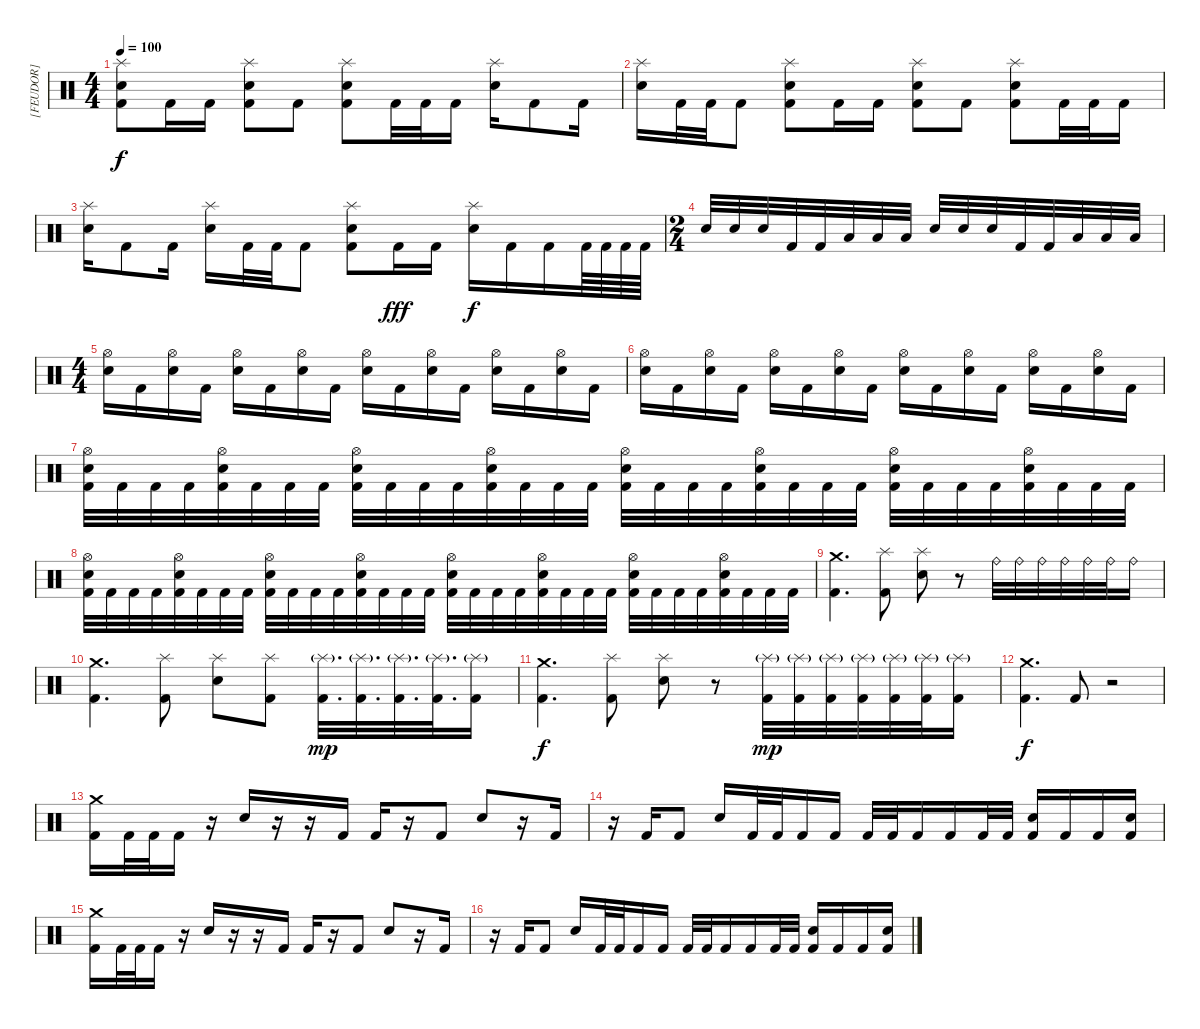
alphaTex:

\track ("[FEUDOR]" "[FEUDOR]") {instrument percussion}
\staff {score}
\articulation defaults
\ts (4 4)
\tempo 100
\clef neutral
\ks c
("Splash (hit)" "Electric Snare (hit)" "Kick (hit) 2").8{dy f} "Kick (hit) 2".16 "Kick (hit) 2".16 ("Splash (hit)" "Electric Snare (hit)" "Kick (hit) 2").8 "Kick (hit) 2".8 ("Splash (hit)" "Electric Snare (hit)" "Kick (hit) 2").8 "Kick (hit) 2".32 "Kick (hit) 2".32 "Kick (hit) 2".16 ("Splash (hit)" "Electric Snare (hit)").16 "Kick (hit) 2".8 "Kick (hit) 2".16 |
("Splash (hit)" "Electric Snare (hit)").16 "Kick (hit) 2".32 "Kick (hit) 2".32 "Kick (hit) 2".8 ("Splash (hit)" "Electric Snare (hit)" "Kick (hit) 2").8 "Kick (hit) 2".16 "Kick (hit) 2".16 ("Splash (hit)" "Electric Snare (hit)" "Kick (hit) 2").8 "Kick (hit) 2".8 ("Splash (hit)" "Electric Snare (hit)" "Kick (hit) 2").8 "Kick (hit) 2".32 "Kick (hit) 2".32 "Kick (hit) 2".16 |
("Splash (hit)" "Electric Snare (hit)").16 "Kick (hit) 2".8 "Kick (hit) 2".16 ("Splash (hit)" "Electric Snare (hit)").16 "Kick (hit) 2".32 "Kick (hit) 2".32 "Kick (hit) 2".8 ("Splash (hit)" "Electric Snare (hit)" "Kick (hit) 2").8 "Kick (hit) 2".16{dy fff} "Kick (hit) 2".16 ("Splash (hit)" "Electric Snare (hit)").16{dy f} "Kick (hit) 2".16 "Kick (hit) 2".16 "Kick (hit) 2".64 "Kick (hit) 2".64 "Kick (hit) 2".64 "Kick (hit) 2".64 |
\ts (2 4)
"Electric Snare (hit)".32 "Electric Snare (hit)".32 "Electric Snare (hit)".32 "Kick (hit) 2".32 "Kick (hit) 2".32 "Low Tom (hit)".32 "Low Tom (hit)".32 "Low Tom (hit)".32 "Electric Snare (hit)".32 "Electric Snare (hit)".32 "Electric Snare (hit)".32 "Kick (hit) 2".32 "Kick (hit) 2".32 "Low Tom (hit)".32 "Low Tom (hit)".32 "Low Tom (hit)".32 |
\ts (4 4)
("Hi-Hat (open)" "Electric Snare (hit)").16 "Kick (hit) 2".16 ("Hi-Hat (open)" "Electric Snare (hit)").16 "Kick (hit) 2".16 ("Hi-Hat (open)" "Electric Snare (hit)").16 "Kick (hit) 2".16 ("Hi-Hat (open)" "Electric Snare (hit)").16 "Kick (hit) 2".16 ("Hi-Hat (open)" "Electric Snare (hit)").16 "Kick (hit) 2".16 ("Hi-Hat (open)" "Electric Snare (hit)").16 "Kick (hit) 2".16 ("Hi-Hat (open)" "Electric Snare (hit)").16 "Kick (hit) 2".16 ("Hi-Hat (open)" "Electric Snare (hit)").16 "Kick (hit) 2".16 |
("Hi-Hat (open)" "Electric Snare (hit)").16 "Kick (hit) 2".16 ("Hi-Hat (open)" "Electric Snare (hit)").16 "Kick (hit) 2".16 ("Hi-Hat (open)" "Electric Snare (hit)").16 "Kick (hit) 2".16 ("Hi-Hat (open)" "Electric Snare (hit)").16 "Kick (hit) 2".16 ("Hi-Hat (open)" "Electric Snare (hit)").16 "Kick (hit) 2".16 ("Hi-Hat (open)" "Electric Snare (hit)").16 "Kick (hit) 2".16 ("Hi-Hat (open)" "Electric Snare (hit)").16 "Kick (hit) 2".16 ("Hi-Hat (open)" "Electric Snare (hit)").16 "Kick (hit) 2".16 |
("Hi-Hat (open)" "Electric Snare (hit)" "Kick (hit) 2").32 "Kick (hit) 2".32 "Kick (hit) 2".32 "Kick (hit) 2".32 ("Hi-Hat (open)" "Electric Snare (hit)" "Kick (hit) 2").32 "Kick (hit) 2".32 "Kick (hit) 2".32 "Kick (hit) 2".32 ("Hi-Hat (open)" "Electric Snare (hit)" "Kick (hit) 2").32 "Kick (hit) 2".32 "Kick (hit) 2".32 "Kick (hit) 2".32 ("Hi-Hat (open)" "Electric Snare (hit)" "Kick (hit) 2").32 "Kick (hit) 2".32 "Kick (hit) 2".32 "Kick (hit) 2".32 ("Hi-Hat (open)" "Electric Snare (hit)" "Kick (hit) 2").32 "Kick (hit) 2".32 "Kick (hit) 2".32 "Kick (hit) 2".32 ("Hi-Hat (open)" "Electric Snare (hit)" "Kick (hit) 2").32 "Kick (hit) 2".32 "Kick (hit) 2".32 "Kick (hit) 2".32 ("Hi-Hat (open)" "Electric Snare (hit)" "Kick (hit) 2").32 "Kick (hit) 2".32 "Kick (hit) 2".32 "Kick (hit) 2".32 ("Hi-Hat (open)" "Electric Snare (hit)" "Kick (hit) 2").32 "Kick (hit) 2".32 "Kick (hit) 2".32 "Kick (hit) 2".32 |
("Hi-Hat (open)" "Electric Snare (hit)" "Kick (hit) 2").32 "Kick (hit) 2".32 "Kick (hit) 2".32 "Kick (hit) 2".32 ("Hi-Hat (open)" "Electric Snare (hit)" "Kick (hit) 2").32 "Kick (hit) 2".32 "Kick (hit) 2".32 "Kick (hit) 2".32 ("Hi-Hat (open)" "Electric Snare (hit)" "Kick (hit) 2").32 "Kick (hit) 2".32 "Kick (hit) 2".32 "Kick (hit) 2".32 ("Hi-Hat (open)" "Electric Snare (hit)" "Kick (hit) 2").32 "Kick (hit) 2".32 "Kick (hit) 2".32 "Kick (hit) 2".32 ("Hi-Hat (open)" "Electric Snare (hit)" "Kick (hit) 2").32 "Kick (hit) 2".32 "Kick (hit) 2".32 "Kick (hit) 2".32 ("Hi-Hat (open)" "Electric Snare (hit)" "Kick (hit) 2").32 "Kick (hit) 2".32 "Kick (hit) 2".32 "Kick (hit) 2".32 ("Hi-Hat (open)" "Electric Snare (hit)" "Kick (hit) 2").32 "Kick (hit) 2".32 "Kick (hit) 2".32 "Kick (hit) 2".32 ("Hi-Hat (open)" "Electric Snare (hit)" "Kick (hit) 2").32 "Kick (hit) 2".32 "Kick (hit) 2".32 "Kick (hit) 2".32 |
("Crash medium (hit)" "Kick (hit) 2").4{d} ("Splash (hit)" "Kick (hit) 2").8 ("Splash (hit)" "Electric Snare (hit)").8 r.8 "Ride (bell)".32 "Ride (bell)".32 "Ride (bell)".32 "Ride (bell)".32 "Ride (bell)".32 "Ride (bell)".32 "Ride (bell)".16 |
("Crash medium (hit)" "Kick (hit) 2").4{d} ("Splash (hit)" "Kick (hit) 2").8 ("Splash (hit)" "Electric Snare (hit)").8 ("Splash (hit)" "Kick (hit) 2").8 ("Splash (hit)"{g} "Kick (hit) 2").32{d dy mp} ("Splash (hit)"{g} "Kick (hit) 2").32{d} ("Splash (hit)"{g} "Kick (hit) 2").32{d} ("Splash (hit)"{g} "Kick (hit) 2").32{d} ("Splash (hit)"{g} "Kick (hit) 2").16 |
("Crash medium (hit)" "Kick (hit) 2").4{d dy f} ("Splash (hit)" "Kick (hit) 2").8 ("Splash (hit)" "Electric Snare (hit)").8 r.8 ("Splash (hit)"{g} "Kick (hit) 2").32{dy mp} ("Splash (hit)"{g} "Kick (hit) 2").32 ("Splash (hit)"{g} "Kick (hit) 2").32 ("Splash (hit)"{g} "Kick (hit) 2").32 ("Splash (hit)"{g} "Kick (hit) 2").32 ("Splash (hit)"{g} "Kick (hit) 2").32 ("Splash (hit)"{g} "Kick (hit) 2").16 |
("Crash medium (hit)" "Kick (hit) 2").4{d dy f} "Kick (hit) 2".8 r.2 |
("Crash medium (hit)" "Kick (hit) 2").16 "Kick (hit) 2".32 "Kick (hit) 2".32 "Kick (hit) 2".16 r.16 "Electric Snare (hit)".16 r.16 r.16 "Kick (hit) 2".16 "Kick (hit) 2".16 r.16 "Kick (hit) 2".8 "Electric Snare (hit)".8 r.16 "Kick (hit) 2".16 |
r.16 "Kick (hit) 2".16 "Kick (hit) 2".8 "Electric Snare (hit)".16 "Kick (hit) 2".32 "Kick (hit) 2".32 "Kick (hit) 2".16 "Kick (hit) 2".16 "Kick (hit) 2".32 "Kick (hit) 2".32 "Kick (hit) 2".16 "Kick (hit) 2".16 "Kick (hit) 2".32 "Kick (hit) 2".32 ("Electric Snare (hit)" "Kick (hit) 2").16 "Kick (hit) 2".16 "Kick (hit) 2".16 ("Electric Snare (hit)" "Kick (hit) 2").16 |
("Crash medium (hit)" "Kick (hit) 2").16 "Kick (hit) 2".32 "Kick (hit) 2".32 "Kick (hit) 2".16 r.16 "Electric Snare (hit)".16 r.16 r.16 "Kick (hit) 2".16 "Kick (hit) 2".16 r.16 "Kick (hit) 2".8 "Electric Snare (hit)".8 r.16 "Kick (hit) 2".16 |
r.16 "Kick (hit) 2".16 "Kick (hit) 2".8 "Electric Snare (hit)".16 "Kick (hit) 2".32 "Kick (hit) 2".32 "Kick (hit) 2".16 "Kick (hit) 2".16 "Kick (hit) 2".32 "Kick (hit) 2".32 "Kick (hit) 2".16 "Kick (hit) 2".16 "Kick (hit) 2".32 "Kick (hit) 2".32 ("Electric Snare (hit)" "Kick (hit) 2").16 "Kick (hit) 2".16 "Kick (hit) 2".16 ("Electric Snare (hit)" "Kick (hit) 2").16
